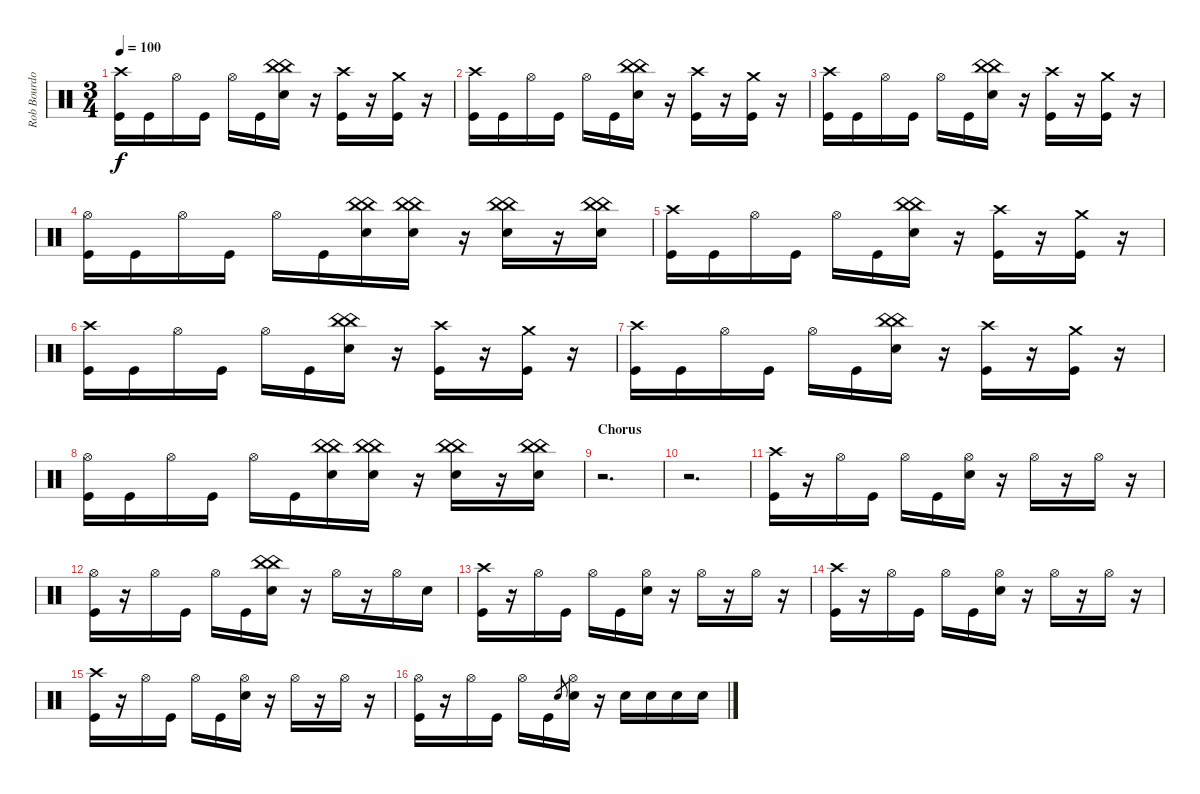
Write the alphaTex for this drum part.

\track ("Rob Bourdon" "Rob Bourdo") {instrument percussion}
\staff {score}
\articulation defaults
\ts (3 4)
\tempo 100
\clef neutral
\ks c
("Crash high (hit)" "Kick (hit)").16{dy f} "Kick (hit)".16 "Hi-Hat (open)".16 "Kick (hit)".16 "Hi-Hat (open)".16 "Kick (hit)".16 ("China (hit)" "China (hit)" "Snare (hit) 2").16 r.16 ("Crash high (hit)" "Kick (hit)").16 r.16 ("Crash medium (hit)" "Kick (hit)").16 r.16 |
("Crash high (hit)" "Kick (hit)").16 "Kick (hit)".16 "Hi-Hat (open)".16 "Kick (hit)".16 "Hi-Hat (open)".16 "Kick (hit)".16 ("China (hit)" "China (hit)" "Snare (hit) 2").16 r.16 ("Crash high (hit)" "Kick (hit)").16 r.16 ("Crash medium (hit)" "Kick (hit)").16 r.16 |
("Crash high (hit)" "Kick (hit)").16 "Kick (hit)".16 "Hi-Hat (open)".16 "Kick (hit)".16 "Hi-Hat (open)".16 "Kick (hit)".16 ("China (hit)" "China (hit)" "Snare (hit) 2").16 r.16 ("Crash high (hit)" "Kick (hit)").16 r.16 ("Crash medium (hit)" "Kick (hit)").16 r.16 |
("Hi-Hat (open)" "Kick (hit)").16 "Kick (hit)".16 "Hi-Hat (open)".16 "Kick (hit)".16 "Hi-Hat (open)".16 "Kick (hit)".16 ("China (hit)" "China (hit)" "Snare (hit) 2").16 ("China (hit)" "China (hit)" "Snare (hit) 2").16 r.16 ("China (hit)" "China (hit)" "Snare (hit) 2").16 r.16 ("China (hit)" "China (hit)" "Snare (hit) 2").16 |
("Crash high (hit)" "Kick (hit)").16 "Kick (hit)".16 "Hi-Hat (open)".16 "Kick (hit)".16 "Hi-Hat (open)".16 "Kick (hit)".16 ("China (hit)" "China (hit)" "Snare (hit) 2").16 r.16 ("Crash high (hit)" "Kick (hit)").16 r.16 ("Crash medium (hit)" "Kick (hit)").16 r.16 |
("Crash high (hit)" "Kick (hit)").16 "Kick (hit)".16 "Hi-Hat (open)".16 "Kick (hit)".16 "Hi-Hat (open)".16 "Kick (hit)".16 ("China (hit)" "China (hit)" "Snare (hit) 2").16 r.16 ("Crash high (hit)" "Kick (hit)").16 r.16 ("Crash medium (hit)" "Kick (hit)").16 r.16 |
("Crash high (hit)" "Kick (hit)").16 "Kick (hit)".16 "Hi-Hat (open)".16 "Kick (hit)".16 "Hi-Hat (open)".16 "Kick (hit)".16 ("China (hit)" "China (hit)" "Snare (hit) 2").16 r.16 ("Crash high (hit)" "Kick (hit)").16 r.16 ("Crash medium (hit)" "Kick (hit)").16 r.16 |
("Hi-Hat (open)" "Kick (hit)").16 "Kick (hit)".16 "Hi-Hat (open)".16 "Kick (hit)".16 "Hi-Hat (open)".16 "Kick (hit)".16 ("China (hit)" "China (hit)" "Snare (hit) 2").16 ("China (hit)" "China (hit)" "Snare (hit) 2").16 r.16 ("China (hit)" "China (hit)" "Snare (hit) 2").16 r.16 ("China (hit)" "China (hit)" "Snare (hit) 2").16 |
\section ("" "Chorus")
r.2{d} |
r.2{d} |
("Crash high (hit)" "Kick (hit)").16 r.16 "Hi-Hat (open)".16 "Kick (hit)".16 "Hi-Hat (open)".16 "Kick (hit)".16 ("Hi-Hat (open)" "Snare (hit) 2").16 r.16 "Hi-Hat (open)".16 r.16 "Hi-Hat (open)".16 r.16 |
("Hi-Hat (open)" "Kick (hit)").16 r.16 "Hi-Hat (open)".16 "Kick (hit)".16 "Hi-Hat (open)".16 "Kick (hit)".16 ("China (hit)" "China (hit)" "Snare (hit) 2").16 r.16 "Hi-Hat (open)".16 r.16 "Hi-Hat (open)".16 "Snare (hit) 2".16 |
("Crash high (hit)" "Kick (hit)").16 r.16 "Hi-Hat (open)".16 "Kick (hit)".16 "Hi-Hat (open)".16 "Kick (hit)".16 ("Hi-Hat (open)" "Snare (hit) 2").16 r.16 "Hi-Hat (open)".16 r.16 "Hi-Hat (open)".16 r.16 |
("Crash high (hit)" "Kick (hit)").16 r.16 "Hi-Hat (open)".16 "Kick (hit)".16 "Hi-Hat (open)".16 "Kick (hit)".16 ("Hi-Hat (open)" "Snare (hit) 2").16 r.16 "Hi-Hat (open)".16 r.16 "Hi-Hat (open)".16 r.16 |
("Crash high (hit)" "Kick (hit)").16 r.16 "Hi-Hat (open)".16 "Kick (hit)".16 "Hi-Hat (open)".16 "Kick (hit)".16 ("Hi-Hat (open)" "Snare (hit) 2").16 r.16 "Hi-Hat (open)".16 r.16 "Hi-Hat (open)".16 r.16 |
("Hi-Hat (open)" "Kick (hit)").16 r.16 "Hi-Hat (open)".16 "Kick (hit)".16 "Hi-Hat (open)".16 "Kick (hit)".16 "Snare (hit) 2".8{gr} ("Hi-Hat (open)" "Snare (hit) 2").16 r.16 "Snare (hit) 2".16 "Snare (hit) 2".16 "Snare (hit) 2".16 "Snare (hit) 2".16
